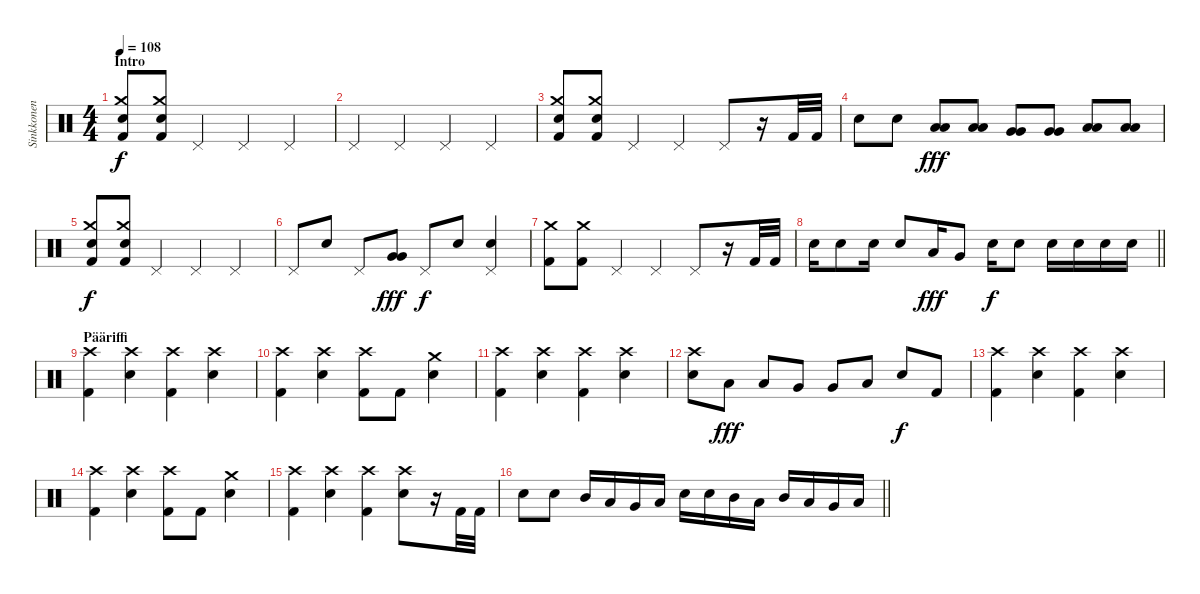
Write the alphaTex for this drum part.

\track ("Sinkkonen" "Sinkkonen") {instrument percussion}
\staff {score}
\articulation defaults
\ts (4 4)
\section ("" "Intro")
\tempo 108
\clef neutral
\ks c
("Kick (hit) 2" "Crash medium (hit)" "Snare (hit) 2").8{dy f} ("Kick (hit) 2" "Crash medium (hit)" "Snare (hit) 2").8 "Pedal Hi-Hat (hit)".4 "Pedal Hi-Hat (hit)".4 "Pedal Hi-Hat (hit)".4 |
"Pedal Hi-Hat (hit)".4 "Pedal Hi-Hat (hit)".4 "Pedal Hi-Hat (hit)".4 "Pedal Hi-Hat (hit)".4 |
("Kick (hit) 2" "Crash medium (hit)" "Snare (hit) 2").8 ("Kick (hit) 2" "Crash medium (hit)" "Snare (hit) 2").8 "Pedal Hi-Hat (hit)".4 "Pedal Hi-Hat (hit)".4 "Pedal Hi-Hat (hit)".8 r.16 "Kick (hit) 2".32 "Kick (hit) 2".32 |
"Snare (hit) 2".8 "Snare (hit) 2".8 ("Low Tom (hit)" "Low Tom (hit)").8{dy fff} ("Low Tom (hit)" "Low Tom (hit)").8 ("Very Low Tom (hit)" "Very Low Tom (hit)").8 ("Very Low Tom (hit)" "Very Low Tom (hit)").8 ("Low Floor Tom (hit)" "Low Floor Tom (hit)").8 ("Low Floor Tom (hit)" "Low Floor Tom (hit)").8 |
("Kick (hit) 2" "Crash medium (hit)" "Snare (hit) 2").8{dy f} ("Kick (hit) 2" "Crash medium (hit)" "Snare (hit) 2").8 "Pedal Hi-Hat (hit)".4 "Pedal Hi-Hat (hit)".4 "Pedal Hi-Hat (hit)".4 |
"Pedal Hi-Hat (hit)".8 "Snare (hit) 2".8 "Pedal Hi-Hat (hit)".8 ("Very Low Tom (hit)" "Very Low Tom (hit)").8{dy fff} "Pedal Hi-Hat (hit)".8{dy f} "Snare (hit) 2".8 ("Pedal Hi-Hat (hit)" "Snare (hit) 2").4 |
("Kick (hit) 2" "Crash medium (hit)").8 ("Kick (hit) 2" "Crash medium (hit)").8 "Pedal Hi-Hat (hit)".4 "Pedal Hi-Hat (hit)".4 "Pedal Hi-Hat (hit)".8 r.16 "Kick (hit) 2".32 "Kick (hit) 2".32 |
\barLineRight lightlight "Snare (hit) 2".16 "Snare (hit) 2".8 "Snare (hit) 2".16 "Snare (hit) 2".8 "Low Tom (hit)".16{dy fff} "Very Low Tom (hit)".8 "Snare (hit) 2".16{dy f} "Snare (hit) 2".8 "Snare (hit) 2".16 "Snare (hit) 2".16 "Snare (hit) 2".16 "Snare (hit) 2".16
|
\section ("" "Pääriffi")
("Kick (hit) 2" "Crash high (hit)").4 ("Crash high (hit)" "Snare (hit) 2").4 ("Kick (hit) 2" "Crash high (hit)").4 ("Crash high (hit)" "Snare (hit) 2").4 |
("Kick (hit) 2" "Crash high (hit)").4 ("Crash high (hit)" "Snare (hit) 2").4 ("Kick (hit) 2" "Crash high (hit)").8 "Kick (hit) 2".8 ("Crash medium (hit)" "Snare (hit) 2").4 |
("Kick (hit) 2" "Crash high (hit)").4 ("Crash high (hit)" "Snare (hit) 2").4 ("Kick (hit) 2" "Crash high (hit)").4 ("Crash high (hit)" "Snare (hit) 2").4 |
("Crash high (hit)" "Snare (hit) 2").8 "Low Tom (hit)".8{dy fff} "Low Tom (hit)".8 "Very Low Tom (hit)".8 "Very Low Tom (hit)".8 "Low Floor Tom (hit)".8 "Snare (hit) 2".8{dy f} "Kick (hit) 2".8 |
("Kick (hit) 2" "Crash high (hit)").4 ("Crash high (hit)" "Snare (hit) 2").4 ("Kick (hit) 2" "Crash high (hit)").4 ("Crash high (hit)" "Snare (hit) 2").4 |
("Kick (hit) 2" "Crash high (hit)").4 ("Crash high (hit)" "Snare (hit) 2").4 ("Kick (hit) 2" "Crash high (hit)").8 "Kick (hit) 2".8 ("Crash medium (hit)" "Snare (hit) 2").4 |
("Kick (hit) 2" "Crash high (hit)").4 ("Crash high (hit)" "Snare (hit) 2").4 ("Kick (hit) 2" "Crash high (hit)").4 ("Crash high (hit)" "Snare (hit) 2").8 r.16 "Kick (hit) 2".32 "Kick (hit) 2".32 |
\barLineRight lightlight "Snare (hit) 2".8 "Snare (hit) 2".8 "Mid Tom (hit)".16 "Low Tom (hit)".16 "Very Low Tom (hit)".16 "Low Floor Tom (hit)".16 "Snare (hit) 2".16 "Snare (hit) 2".16 "Mid Tom (hit)".16 "Low Tom (hit)".16 "Mid Tom (hit)".16 "Low Tom (hit)".16 "Very Low Tom (hit)".16 "Low Floor Tom (hit)".16
